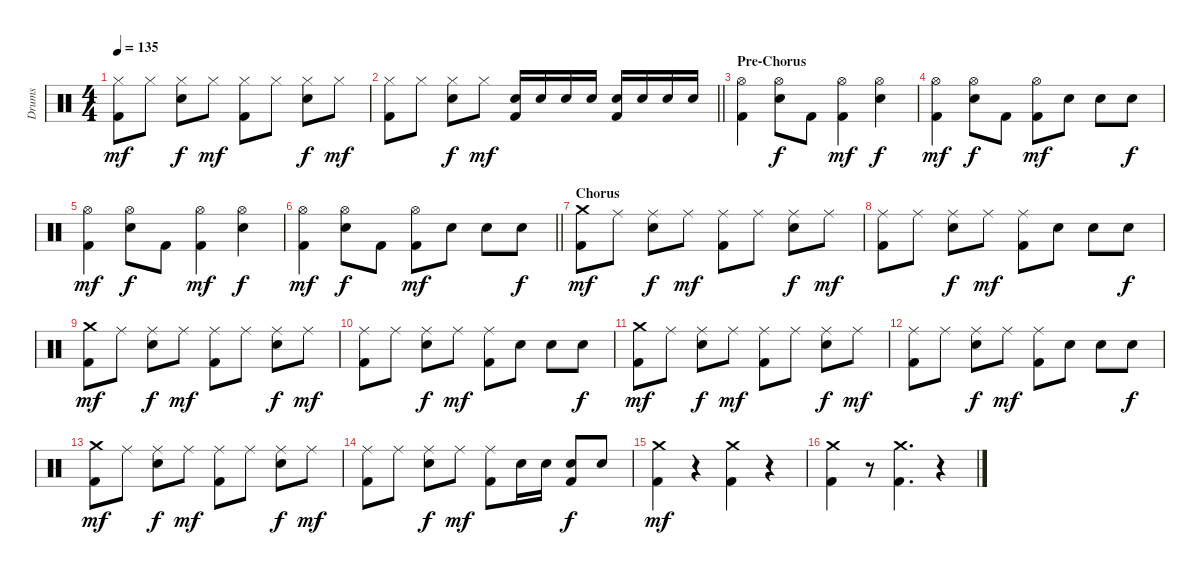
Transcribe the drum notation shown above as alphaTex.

\track ("Drums" "Drums") {instrument percussion}
\staff {score}
\articulation defaults
\ts (4 4)
\tempo 135
\clef neutral
\ks c
("Hi-Hat (closed)" "Kick (hit) 2").8{dy mf} "Hi-Hat (closed)".8 ("Hi-Hat (closed)" "Snare (hit) 2").8{dy f} "Hi-Hat (closed)".8{dy mf} ("Hi-Hat (closed)" "Kick (hit) 2").8 "Hi-Hat (closed)".8 ("Hi-Hat (closed)" "Snare (hit) 2").8{dy f} "Hi-Hat (closed)".8{dy mf} |
\barLineRight lightlight
("Hi-Hat (closed)" "Kick (hit) 2").8 "Hi-Hat (closed)".8 ("Hi-Hat (closed)" "Snare (hit) 2").8{dy f} "Hi-Hat (closed)".8{dy mf} ("Snare (hit) 2" "Kick (hit) 2").16 "Snare (hit) 2".16 "Snare (hit) 2".16 "Snare (hit) 2".16 ("Snare (hit) 2" "Kick (hit) 2").16 "Snare (hit) 2".16 "Snare (hit) 2".16 "Snare (hit) 2".16 |
\section ("" "Pre-Chorus")
("Hi-Hat (open)" "Kick (hit) 2").4 ("Hi-Hat (open)" "Snare (hit) 2").8{dy f} "Kick (hit) 2".8 ("Hi-Hat (open)" "Kick (hit) 2").4{dy mf} ("Hi-Hat (open)" "Snare (hit) 2").4{dy f} |
("Hi-Hat (open)" "Kick (hit) 2").4{dy mf} ("Hi-Hat (open)" "Snare (hit) 2").8{dy f} "Kick (hit) 2".8 ("Hi-Hat (open)" "Kick (hit) 2").8{dy mf} "Snare (hit) 2".8 "Snare (hit) 2".8 "Snare (hit) 2".8{dy f} |
("Hi-Hat (open)" "Kick (hit) 2").4{dy mf} ("Hi-Hat (open)" "Snare (hit) 2").8{dy f} "Kick (hit) 2".8 ("Hi-Hat (open)" "Kick (hit) 2").4{dy mf} ("Hi-Hat (open)" "Snare (hit) 2").4{dy f} |
\barLineRight lightlight
("Hi-Hat (open)" "Kick (hit) 2").4{dy mf} ("Hi-Hat (open)" "Snare (hit) 2").8{dy f} "Kick (hit) 2".8 ("Hi-Hat (open)" "Kick (hit) 2").8{dy mf} "Snare (hit) 2".8 "Snare (hit) 2".8 "Snare (hit) 2".8{dy f} |
\section ("" "Chorus")
("Crash medium (hit)" "Kick (hit) 2").8{dy mf} "Ride (middle)".8 ("Ride (middle)" "Snare (hit) 2").8{dy f} "Ride (middle)".8{dy mf} ("Ride (middle)" "Kick (hit) 2").8 "Ride (middle)".8 ("Ride (middle)" "Snare (hit) 2").8{dy f} "Ride (middle)".8{dy mf} |
("Ride (middle)" "Kick (hit) 2").8 "Ride (middle)".8 ("Ride (middle)" "Snare (hit) 2").8{dy f} "Ride (middle)".8{dy mf} ("Ride (middle)" "Kick (hit) 2").8 "Snare (hit) 2".8 "Snare (hit) 2".8 "Snare (hit) 2".8{dy f} |
("Crash medium (hit)" "Kick (hit) 2").8{dy mf} "Ride (middle)".8 ("Ride (middle)" "Snare (hit) 2").8{dy f} "Ride (middle)".8{dy mf} ("Ride (middle)" "Kick (hit) 2").8 "Ride (middle)".8 ("Ride (middle)" "Snare (hit) 2").8{dy f} "Ride (middle)".8{dy mf} |
("Ride (middle)" "Kick (hit) 2").8 "Ride (middle)".8 ("Ride (middle)" "Snare (hit) 2").8{dy f} "Ride (middle)".8{dy mf} ("Ride (middle)" "Kick (hit) 2").8 "Snare (hit) 2".8 "Snare (hit) 2".8 "Snare (hit) 2".8{dy f} |
("Crash medium (hit)" "Kick (hit) 2").8{dy mf} "Ride (middle)".8 ("Ride (middle)" "Snare (hit) 2").8{dy f} "Ride (middle)".8{dy mf} ("Ride (middle)" "Kick (hit) 2").8 "Ride (middle)".8 ("Ride (middle)" "Snare (hit) 2").8{dy f} "Ride (middle)".8{dy mf} |
("Ride (middle)" "Kick (hit) 2").8 "Ride (middle)".8 ("Ride (middle)" "Snare (hit) 2").8{dy f} "Ride (middle)".8{dy mf} ("Ride (middle)" "Kick (hit) 2").8 "Snare (hit) 2".8 "Snare (hit) 2".8 "Snare (hit) 2".8{dy f} |
("Crash medium (hit)" "Kick (hit) 2").8{dy mf} "Ride (middle)".8 ("Ride (middle)" "Snare (hit) 2").8{dy f} "Ride (middle)".8{dy mf} ("Ride (middle)" "Kick (hit) 2").8 "Ride (middle)".8 ("Ride (middle)" "Snare (hit) 2").8{dy f} "Ride (middle)".8{dy mf} |
("Ride (middle)" "Kick (hit) 2").8 "Ride (middle)".8 ("Ride (middle)" "Snare (hit) 2").8{dy f} "Ride (middle)".8{dy mf} ("Ride (middle)" "Kick (hit) 2").8 "Snare (hit) 2".16 "Snare (hit) 2".16 ("Snare (hit) 2" "Kick (hit) 2").8{dy f} "Snare (hit) 2".8 |
("Crash medium (hit)" "Kick (hit) 2").4{dy mf} r.4 ("Crash medium (hit)" "Kick (hit) 2").4 r.4 |
("Crash medium (hit)" "Kick (hit) 2").4 r.8 ("Crash medium (hit)" "Kick (hit) 2").4{d} r.4
